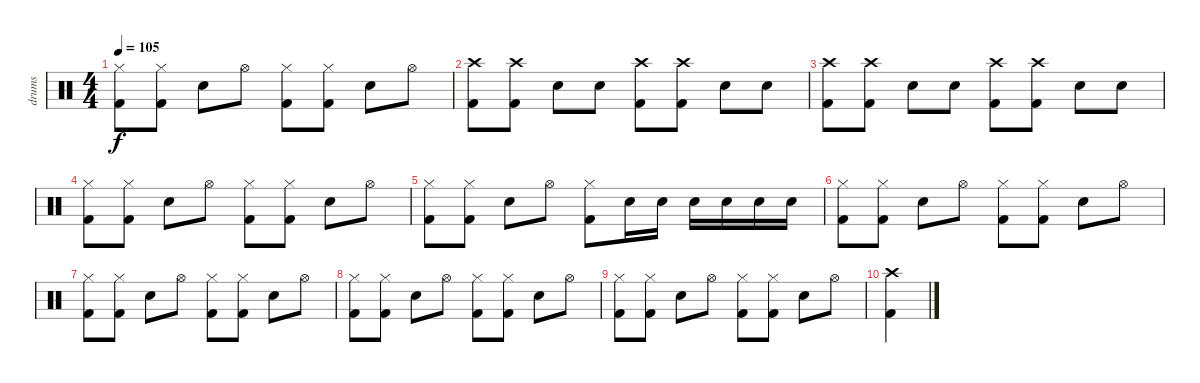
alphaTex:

\track ("drums" "drums") {instrument percussion}
\staff {score}
\articulation defaults
\ts (4 4)
\tempo 105
\clef neutral
\ks c
("Hi-Hat (closed)" "Kick (hit) 2").8{dy f} ("Hi-Hat (closed)" "Kick (hit) 2").8 "Snare (hit) 2".8 "Hi-Hat (open)".8 ("Hi-Hat (closed)" "Kick (hit) 2").8 ("Hi-Hat (closed)" "Kick (hit) 2").8 "Snare (hit) 2".8 "Hi-Hat (open)".8 |
("Crash high (hit)" "Kick (hit) 2").8 ("Crash high (hit)" "Kick (hit) 2").8 "Snare (hit) 2".8 "Snare (hit) 2".8 ("Crash high (hit)" "Kick (hit) 2").8 ("Crash high (hit)" "Kick (hit) 2").8 "Snare (hit) 2".8 "Snare (hit) 2".8 |
("Crash high (hit)" "Kick (hit) 2").8 ("Crash high (hit)" "Kick (hit) 2").8 "Snare (hit) 2".8 "Snare (hit) 2".8 ("Crash high (hit)" "Kick (hit) 2").8 ("Crash high (hit)" "Kick (hit) 2").8 "Snare (hit) 2".8 "Snare (hit) 2".8 |
("Hi-Hat (closed)" "Kick (hit) 2").8 ("Hi-Hat (closed)" "Kick (hit) 2").8 "Snare (hit) 2".8 "Hi-Hat (open)".8 ("Hi-Hat (closed)" "Kick (hit) 2").8 ("Hi-Hat (closed)" "Kick (hit) 2").8 "Snare (hit) 2".8 "Hi-Hat (open)".8 |
("Hi-Hat (closed)" "Kick (hit) 2").8 ("Hi-Hat (closed)" "Kick (hit) 2").8 "Snare (hit) 2".8 "Hi-Hat (open)".8 ("Hi-Hat (closed)" "Kick (hit) 2").8 "Snare (hit) 2".16 "Snare (hit) 2".16 "Snare (hit) 2".16 "Snare (hit) 2".16 "Snare (hit) 2".16 "Snare (hit) 2".16 |
("Hi-Hat (closed)" "Kick (hit) 2").8 ("Hi-Hat (closed)" "Kick (hit) 2").8 "Snare (hit) 2".8 "Hi-Hat (open)".8 ("Hi-Hat (closed)" "Kick (hit) 2").8 ("Hi-Hat (closed)" "Kick (hit) 2").8 "Snare (hit) 2".8 "Hi-Hat (open)".8 |
("Hi-Hat (closed)" "Kick (hit) 2").8 ("Hi-Hat (closed)" "Kick (hit) 2").8 "Snare (hit) 2".8 "Hi-Hat (open)".8 ("Hi-Hat (closed)" "Kick (hit) 2").8 ("Hi-Hat (closed)" "Kick (hit) 2").8 "Snare (hit) 2".8 "Hi-Hat (open)".8 |
("Hi-Hat (closed)" "Kick (hit) 2").8 ("Hi-Hat (closed)" "Kick (hit) 2").8 "Snare (hit) 2".8 "Hi-Hat (open)".8 ("Hi-Hat (closed)" "Kick (hit) 2").8 ("Hi-Hat (closed)" "Kick (hit) 2").8 "Snare (hit) 2".8 "Hi-Hat (open)".8 |
("Hi-Hat (closed)" "Kick (hit) 2").8 ("Hi-Hat (closed)" "Kick (hit) 2").8 "Snare (hit) 2".8 "Hi-Hat (open)".8 ("Hi-Hat (closed)" "Kick (hit) 2").8 ("Hi-Hat (closed)" "Kick (hit) 2").8 "Snare (hit) 2".8 "Hi-Hat (open)".8 |
("Crash high (hit)" "Kick (hit) 2").4
